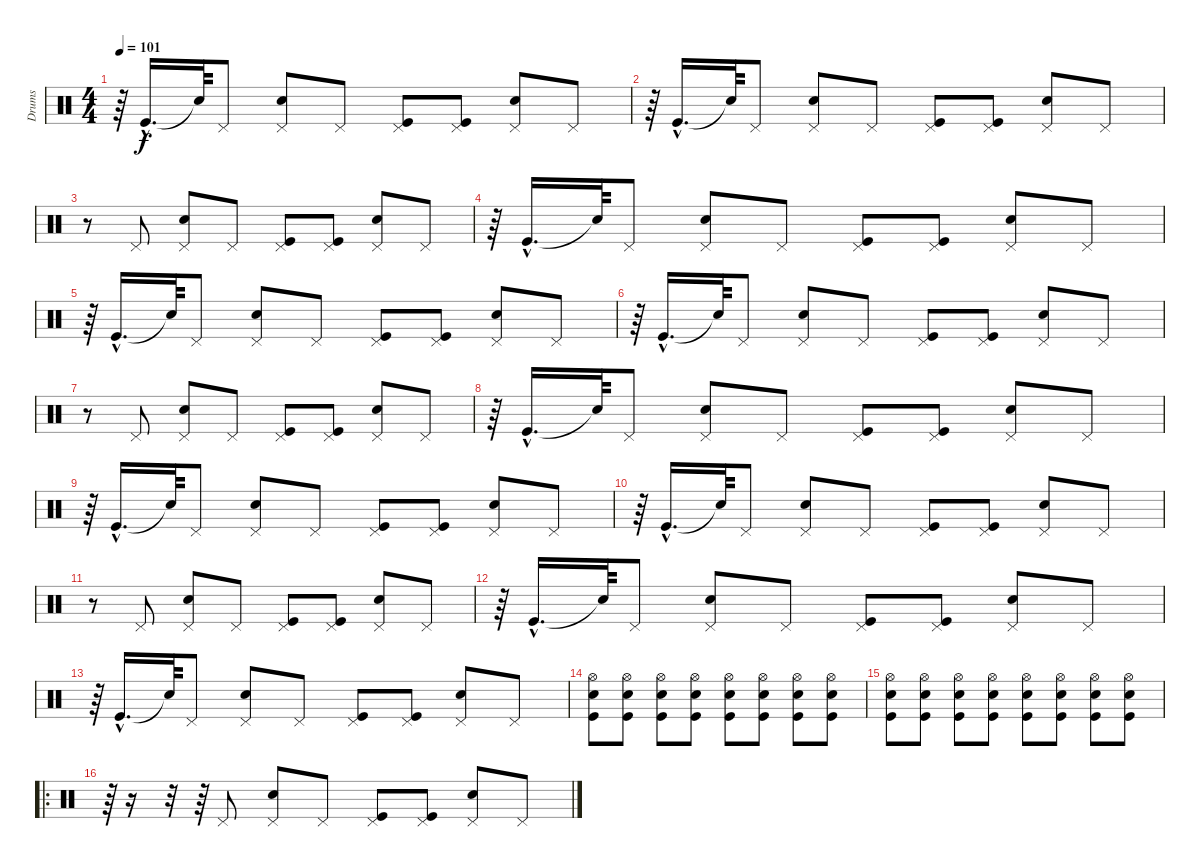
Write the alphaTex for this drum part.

\track ("Drums" "Drums") {instrument percussion}
\staff {score}
\articulation defaults
\ts (4 4)
\tempo 101
\clef neutral
\ks c
r.64{dy f} "Kick (hit)"{hac}.16{d} "Snare (hit)"{t}.64 "Pedal Hi-Hat (hit)".8 ("Electric Snare (hit)" "Pedal Hi-Hat (hit)").8 "Pedal Hi-Hat (hit)".8 ("Kick (hit)" "Pedal Hi-Hat (hit)").8 ("Kick (hit)" "Pedal Hi-Hat (hit)").8 ("Electric Snare (hit)" "Pedal Hi-Hat (hit)").8 "Pedal Hi-Hat (hit)".8 |
r.64 "Kick (hit)"{hac}.16{d} "Snare (hit)"{t}.64 "Pedal Hi-Hat (hit)".8 ("Electric Snare (hit)" "Pedal Hi-Hat (hit)").8 "Pedal Hi-Hat (hit)".8 ("Kick (hit)" "Pedal Hi-Hat (hit)").8 ("Kick (hit)" "Pedal Hi-Hat (hit)").8 ("Electric Snare (hit)" "Pedal Hi-Hat (hit)").8 "Pedal Hi-Hat (hit)".8 |
r.8 "Pedal Hi-Hat (hit)".8 ("Electric Snare (hit)" "Pedal Hi-Hat (hit)").8 "Pedal Hi-Hat (hit)".8 ("Kick (hit)" "Pedal Hi-Hat (hit)").8 ("Kick (hit)" "Pedal Hi-Hat (hit)").8 ("Electric Snare (hit)" "Pedal Hi-Hat (hit)").8 "Pedal Hi-Hat (hit)".8 |
r.64 "Kick (hit)"{hac}.16{d} "Snare (hit)"{t}.64 "Pedal Hi-Hat (hit)".8 ("Electric Snare (hit)" "Pedal Hi-Hat (hit)").8 "Pedal Hi-Hat (hit)".8 ("Kick (hit)" "Pedal Hi-Hat (hit)").8 ("Kick (hit)" "Pedal Hi-Hat (hit)").8 ("Electric Snare (hit)" "Pedal Hi-Hat (hit)").8 "Pedal Hi-Hat (hit)".8 |
r.64 "Kick (hit)"{hac}.16{d} "Snare (hit)"{t}.64 "Pedal Hi-Hat (hit)".8 ("Electric Snare (hit)" "Pedal Hi-Hat (hit)").8 "Pedal Hi-Hat (hit)".8 ("Kick (hit)" "Pedal Hi-Hat (hit)").8 ("Kick (hit)" "Pedal Hi-Hat (hit)").8 ("Electric Snare (hit)" "Pedal Hi-Hat (hit)").8 "Pedal Hi-Hat (hit)".8 |
r.64 "Kick (hit)"{hac}.16{d} "Snare (hit)"{t}.64 "Pedal Hi-Hat (hit)".8 ("Electric Snare (hit)" "Pedal Hi-Hat (hit)").8 "Pedal Hi-Hat (hit)".8 ("Kick (hit)" "Pedal Hi-Hat (hit)").8 ("Kick (hit)" "Pedal Hi-Hat (hit)").8 ("Electric Snare (hit)" "Pedal Hi-Hat (hit)").8 "Pedal Hi-Hat (hit)".8 |
r.8 "Pedal Hi-Hat (hit)".8 ("Electric Snare (hit)" "Pedal Hi-Hat (hit)").8 "Pedal Hi-Hat (hit)".8 ("Kick (hit)" "Pedal Hi-Hat (hit)").8 ("Kick (hit)" "Pedal Hi-Hat (hit)").8 ("Electric Snare (hit)" "Pedal Hi-Hat (hit)").8 "Pedal Hi-Hat (hit)".8 |
r.64 "Kick (hit)"{hac}.16{d} "Snare (hit)"{t}.64 "Pedal Hi-Hat (hit)".8 ("Electric Snare (hit)" "Pedal Hi-Hat (hit)").8 "Pedal Hi-Hat (hit)".8 ("Kick (hit)" "Pedal Hi-Hat (hit)").8 ("Kick (hit)" "Pedal Hi-Hat (hit)").8 ("Electric Snare (hit)" "Pedal Hi-Hat (hit)").8 "Pedal Hi-Hat (hit)".8 |
r.64 "Kick (hit)"{hac}.16{d} "Snare (hit)"{t}.64 "Pedal Hi-Hat (hit)".8 ("Electric Snare (hit)" "Pedal Hi-Hat (hit)").8 "Pedal Hi-Hat (hit)".8 ("Kick (hit)" "Pedal Hi-Hat (hit)").8 ("Kick (hit)" "Pedal Hi-Hat (hit)").8 ("Electric Snare (hit)" "Pedal Hi-Hat (hit)").8 "Pedal Hi-Hat (hit)".8 |
r.64 "Kick (hit)"{hac}.16{d} "Snare (hit)"{t}.64 "Pedal Hi-Hat (hit)".8 ("Electric Snare (hit)" "Pedal Hi-Hat (hit)").8 "Pedal Hi-Hat (hit)".8 ("Kick (hit)" "Pedal Hi-Hat (hit)").8 ("Kick (hit)" "Pedal Hi-Hat (hit)").8 ("Electric Snare (hit)" "Pedal Hi-Hat (hit)").8 "Pedal Hi-Hat (hit)".8 |
r.8 "Pedal Hi-Hat (hit)".8 ("Electric Snare (hit)" "Pedal Hi-Hat (hit)").8 "Pedal Hi-Hat (hit)".8 ("Kick (hit)" "Pedal Hi-Hat (hit)").8 ("Kick (hit)" "Pedal Hi-Hat (hit)").8 ("Electric Snare (hit)" "Pedal Hi-Hat (hit)").8 "Pedal Hi-Hat (hit)".8 |
r.64 "Kick (hit)"{hac}.16{d} "Snare (hit)"{t}.64 "Pedal Hi-Hat (hit)".8 ("Electric Snare (hit)" "Pedal Hi-Hat (hit)").8 "Pedal Hi-Hat (hit)".8 ("Kick (hit)" "Pedal Hi-Hat (hit)").8 ("Kick (hit)" "Pedal Hi-Hat (hit)").8 ("Electric Snare (hit)" "Pedal Hi-Hat (hit)").8 "Pedal Hi-Hat (hit)".8 |
r.64 "Kick (hit)"{hac}.16{d} "Snare (hit)"{t}.64 "Pedal Hi-Hat (hit)".8 ("Electric Snare (hit)" "Pedal Hi-Hat (hit)").8 "Pedal Hi-Hat (hit)".8 ("Kick (hit)" "Pedal Hi-Hat (hit)").8 ("Kick (hit)" "Pedal Hi-Hat (hit)").8 ("Electric Snare (hit)" "Pedal Hi-Hat (hit)").8 "Pedal Hi-Hat (hit)".8 |
("Kick (hit)" "Electric Snare (hit)" "Hi-Hat (open)").8 ("Kick (hit)" "Electric Snare (hit)" "Hi-Hat (open)").8 ("Kick (hit)" "Electric Snare (hit)" "Hi-Hat (open)").8 ("Kick (hit)" "Electric Snare (hit)" "Hi-Hat (open)").8 ("Kick (hit)" "Electric Snare (hit)" "Hi-Hat (open)").8 ("Kick (hit)" "Electric Snare (hit)" "Hi-Hat (open)").8 ("Kick (hit)" "Electric Snare (hit)" "Hi-Hat (open)").8 ("Kick (hit)" "Electric Snare (hit)" "Hi-Hat (open)").8 |
("Kick (hit)" "Electric Snare (hit)" "Hi-Hat (open)").8 ("Kick (hit)" "Electric Snare (hit)" "Hi-Hat (open)").8 ("Kick (hit)" "Electric Snare (hit)" "Hi-Hat (open)").8 ("Kick (hit)" "Electric Snare (hit)" "Hi-Hat (open)").8 ("Kick (hit)" "Electric Snare (hit)" "Hi-Hat (open)").8 ("Kick (hit)" "Electric Snare (hit)" "Hi-Hat (open)").8 ("Kick (hit)" "Electric Snare (hit)" "Hi-Hat (open)").8 ("Kick (hit)" "Electric Snare (hit)" "Hi-Hat (open)").8 |
\ro
r.64 r.16 r.32 r.64 "Pedal Hi-Hat (hit)".8 ("Electric Snare (hit)" "Pedal Hi-Hat (hit)").8 "Pedal Hi-Hat (hit)".8 ("Kick (hit)" "Pedal Hi-Hat (hit)").8 ("Kick (hit)" "Pedal Hi-Hat (hit)").8 ("Electric Snare (hit)" "Pedal Hi-Hat (hit)").8 "Pedal Hi-Hat (hit)".8
